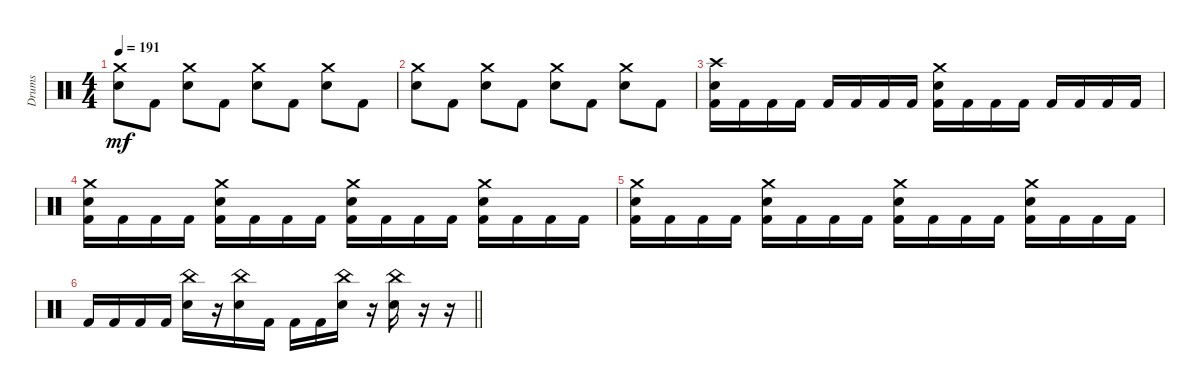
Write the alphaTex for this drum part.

\track ("Drums" "Drums") {instrument percussion}
\staff {score}
\articulation defaults
\ts (4 4)
\tempo 191
\clef neutral
\ks c
("Crash medium (hit)" "Snare (hit) 2").8{dy mf} "Kick (hit) 2".8 ("Crash medium (hit)" "Snare (hit) 2").8 "Kick (hit) 2".8 ("Crash medium (hit)" "Snare (hit) 2").8 "Kick (hit) 2".8 ("Crash medium (hit)" "Snare (hit) 2").8 "Kick (hit) 2".8 |
("Crash medium (hit)" "Snare (hit) 2").8 "Kick (hit) 2".8 ("Crash medium (hit)" "Snare (hit) 2").8 "Kick (hit) 2".8 ("Crash medium (hit)" "Snare (hit) 2").8 "Kick (hit) 2".8 ("Crash medium (hit)" "Snare (hit) 2").8 "Kick (hit) 2".8 |
("Crash high (hit)" "Snare (hit) 2" "Kick (hit) 2").16 "Kick (hit) 2".16 "Kick (hit) 2".16 "Kick (hit) 2".16 "Kick (hit) 2".16 "Kick (hit) 2".16 "Kick (hit) 2".16 "Kick (hit) 2".16 ("Crash medium (hit)" "Snare (hit) 2" "Kick (hit) 2").16 "Kick (hit) 2".16 "Kick (hit) 2".16 "Kick (hit) 2".16 "Kick (hit) 2".16 "Kick (hit) 2".16 "Kick (hit) 2".16 "Kick (hit) 2".16 |
("Crash medium (hit)" "Snare (hit) 2" "Kick (hit) 2").16 "Kick (hit) 2".16 "Kick (hit) 2".16 "Kick (hit) 2".16 ("Crash medium (hit)" "Snare (hit) 2" "Kick (hit) 2").16 "Kick (hit) 2".16 "Kick (hit) 2".16 "Kick (hit) 2".16 ("Crash medium (hit)" "Snare (hit) 2" "Kick (hit) 2").16 "Kick (hit) 2".16 "Kick (hit) 2".16 "Kick (hit) 2".16 ("Crash medium (hit)" "Snare (hit) 2" "Kick (hit) 2").16 "Kick (hit) 2".16 "Kick (hit) 2".16 "Kick (hit) 2".16 |
("Crash medium (hit)" "Snare (hit) 2" "Kick (hit) 2").16 "Kick (hit) 2".16 "Kick (hit) 2".16 "Kick (hit) 2".16 ("Crash medium (hit)" "Snare (hit) 2" "Kick (hit) 2").16 "Kick (hit) 2".16 "Kick (hit) 2".16 "Kick (hit) 2".16 ("Crash medium (hit)" "Snare (hit) 2" "Kick (hit) 2").16 "Kick (hit) 2".16 "Kick (hit) 2".16 "Kick (hit) 2".16 ("Crash medium (hit)" "Snare (hit) 2" "Kick (hit) 2").16 "Kick (hit) 2".16 "Kick (hit) 2".16 "Kick (hit) 2".16 |
\barLineRight lightlight "Kick (hit) 2".16 "Kick (hit) 2".16 "Kick (hit) 2".16 "Kick (hit) 2".16
("China (hit)" "Snare (hit) 2").16 r.16 ("China (hit)" "Snare (hit) 2").16 "Kick (hit) 2".16 "Kick (hit) 2".16 "Kick (hit) 2".16 ("China (hit)" "Snare (hit) 2").16 r.16 ("China (hit)" "Snare (hit) 2").16 r.16 r.16
